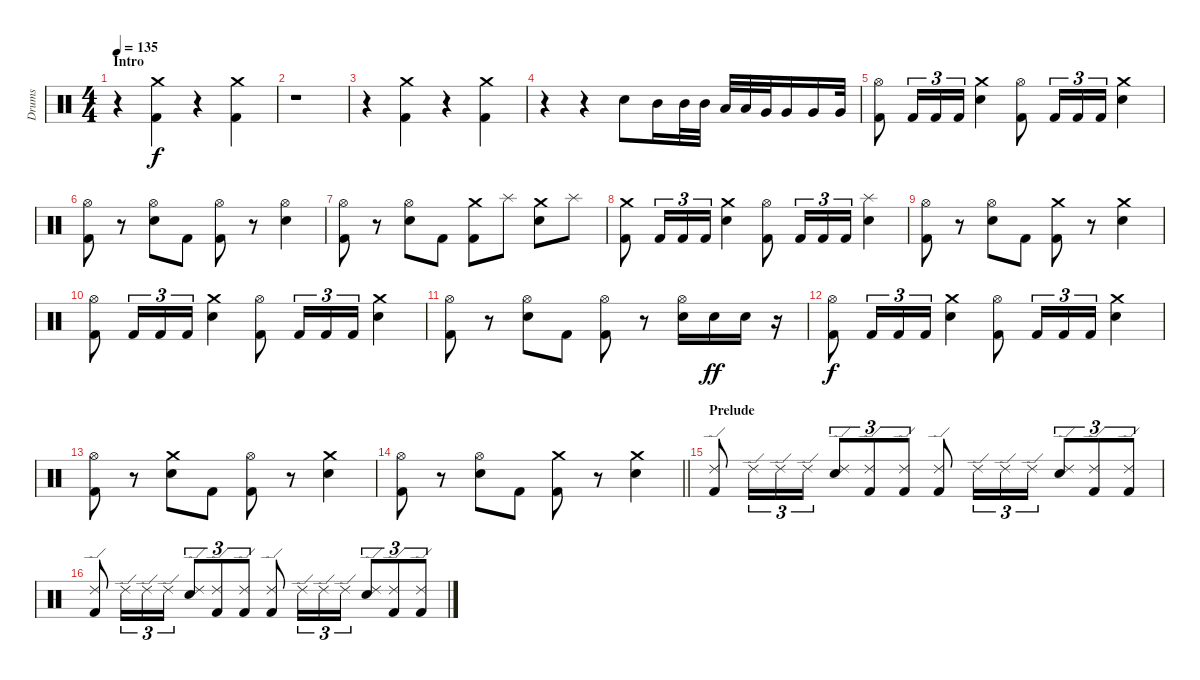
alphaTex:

\track ("Drums" "Drums") {instrument percussion}
\staff {score}
\articulation defaults
\ts (4 4)
\section ("" "Intro")
\tempo 135
\clef neutral
\ks c
r.4{dy f} ("Crash medium (hit)" "Kick (hit) 2").4 r.4 ("Crash medium (hit)" "Kick (hit) 2").4 |
r.1 |
r.4 ("Crash medium (hit)" "Kick (hit) 2").4 r.4 ("Crash medium (hit)" "Kick (hit) 2").4 |
r.4 r.4 "Electric Snare (hit)".8 "Mid Tom (hit)".16 "Mid Tom (hit)".32 "Mid Tom (hit)".32 "Low Tom (hit)".32 "Low Tom (hit)".32 "Very Low Tom (hit)".32 "Very Low Tom (hit)".16 "Very Low Tom (hit)".16 "Very Low Tom (hit)".32 |
("Hi-Hat (open)" "Kick (hit) 2").8 "Kick (hit) 2".16{tu (3 2)} "Kick (hit) 2".16{tu (3 2)} "Kick (hit) 2".16{tu (3 2)} ("Crash medium (hit)" "Electric Snare (hit)").4 ("Hi-Hat (open)" "Kick (hit) 2").8 "Kick (hit) 2".16{tu (3 2)} "Kick (hit) 2".16{tu (3 2)} "Kick (hit) 2".16{tu (3 2)} ("Crash medium (hit)" "Electric Snare (hit)").4 |
("Hi-Hat (open)" "Kick (hit) 2").8 r.8 ("Hi-Hat (open)" "Electric Snare (hit)").8 "Kick (hit) 2".8 ("Hi-Hat (open)" "Kick (hit) 2").8 r.8 ("Hi-Hat (open)" "Electric Snare (hit)").4 |
("Hi-Hat (open)" "Kick (hit) 2").8 r.8 ("Hi-Hat (open)" "Electric Snare (hit)").8 "Kick (hit) 2".8 ("Crash medium (hit)" "Kick (hit) 2").8 "Splash (hit)".8 ("Crash medium (hit)" "Electric Snare (hit)").8 "Splash (hit)".8 |
("Crash medium (hit)" "Kick (hit) 2").8 "Kick (hit) 2".16{tu (3 2)} "Kick (hit) 2".16{tu (3 2)} "Kick (hit) 2".16{tu (3 2)} ("Crash medium (hit)" "Electric Snare (hit)").4 ("Hi-Hat (open)" "Kick (hit) 2").8 "Kick (hit) 2".16{tu (3 2)} "Kick (hit) 2".16{tu (3 2)} "Kick (hit) 2".16{tu (3 2)} ("Splash (hit)" "Electric Snare (hit)").4 |
("Hi-Hat (open)" "Kick (hit) 2").8 r.8 ("Hi-Hat (open)" "Electric Snare (hit)").8 "Kick (hit) 2".8 ("Crash medium (hit)" "Kick (hit) 2").8 r.8 ("Crash medium (hit)" "Electric Snare (hit)").4 |
("Hi-Hat (open)" "Kick (hit) 2").8 "Kick (hit) 2".16{tu (3 2)} "Kick (hit) 2".16{tu (3 2)} "Kick (hit) 2".16{tu (3 2)} ("Crash medium (hit)" "Electric Snare (hit)").4 ("Hi-Hat (open)" "Kick (hit) 2").8 "Kick (hit) 2".16{tu (3 2)} "Kick (hit) 2".16{tu (3 2)} "Kick (hit) 2".16{tu (3 2)} ("Crash medium (hit)" "Electric Snare (hit)").4 |
("Hi-Hat (open)" "Kick (hit) 2").8 r.8 ("Hi-Hat (open)" "Electric Snare (hit)").8 "Kick (hit) 2".8 ("Hi-Hat (open)" "Kick (hit) 2").8 r.8 ("Hi-Hat (open)" "Electric Snare (hit)").16 "Electric Snare (hit)".16{dy ff} "Electric Snare (hit)".16 r.16 |
("Hi-Hat (open)" "Kick (hit) 2").8{dy f} "Kick (hit) 2".16{tu (3 2)} "Kick (hit) 2".16{tu (3 2)} "Kick (hit) 2".16{tu (3 2)} ("Crash medium (hit)" "Electric Snare (hit)").4 ("Hi-Hat (open)" "Kick (hit) 2").8 "Kick (hit) 2".16{tu (3 2)} "Kick (hit) 2".16{tu (3 2)} "Kick (hit) 2".16{tu (3 2)} ("Crash medium (hit)" "Electric Snare (hit)").4 |
("Hi-Hat (open)" "Kick (hit) 2").8 r.8 ("Crash medium (hit)" "Electric Snare (hit)").8 "Kick (hit) 2".8 ("Hi-Hat (open)" "Kick (hit) 2").8 r.8 ("Crash medium (hit)" "Electric Snare (hit)").4 |
\barLineRight lightlight
("Hi-Hat (open)" "Kick (hit) 2").8 r.8 ("Hi-Hat (open)" "Electric Snare (hit)").8 "Kick (hit) 2".8 ("Crash medium (hit)" "Kick (hit) 2").8 r.8 ("Crash medium (hit)" "Electric Snare (hit)").4 |
\section ("" "Prelude")
("Ride (edge) 2" "Kick (hit) 2").8 "Ride (edge) 2".16{tu (3 2)} "Ride (edge) 2".16{tu (3 2)} "Ride (edge) 2".16{tu (3 2)} ("Ride (edge) 2" "Electric Snare (hit)").8{tu (3 2)} ("Ride (edge) 2" "Kick (hit) 2").8{tu (3 2)} ("Ride (edge) 2" "Kick (hit) 2").8{tu (3 2)} ("Ride (edge) 2" "Kick (hit) 2").8 "Ride (edge) 2".16{tu (3 2)} "Ride (edge) 2".16{tu (3 2)} "Ride (edge) 2".16{tu (3 2)} ("Ride (edge) 2" "Electric Snare (hit)").8{tu (3 2)} ("Ride (edge) 2" "Kick (hit) 2").8{tu (3 2)} ("Ride (edge) 2" "Kick (hit) 2").8{tu (3 2)} |
("Ride (edge) 2" "Kick (hit) 2").8 "Ride (edge) 2".16{tu (3 2)} "Ride (edge) 2".16{tu (3 2)} "Ride (edge) 2".16{tu (3 2)} ("Ride (edge) 2" "Electric Snare (hit)").8{tu (3 2)} ("Ride (edge) 2" "Kick (hit) 2").8{tu (3 2)} ("Ride (edge) 2" "Kick (hit) 2").8{tu (3 2)} ("Ride (edge) 2" "Kick (hit) 2").8 "Ride (edge) 2".16{tu (3 2)} "Ride (edge) 2".16{tu (3 2)} "Ride (edge) 2".16{tu (3 2)} ("Ride (edge) 2" "Electric Snare (hit)").8{tu (3 2)} ("Ride (edge) 2" "Kick (hit) 2").8{tu (3 2)} ("Ride (edge) 2" "Kick (hit) 2").8{tu (3 2)}
